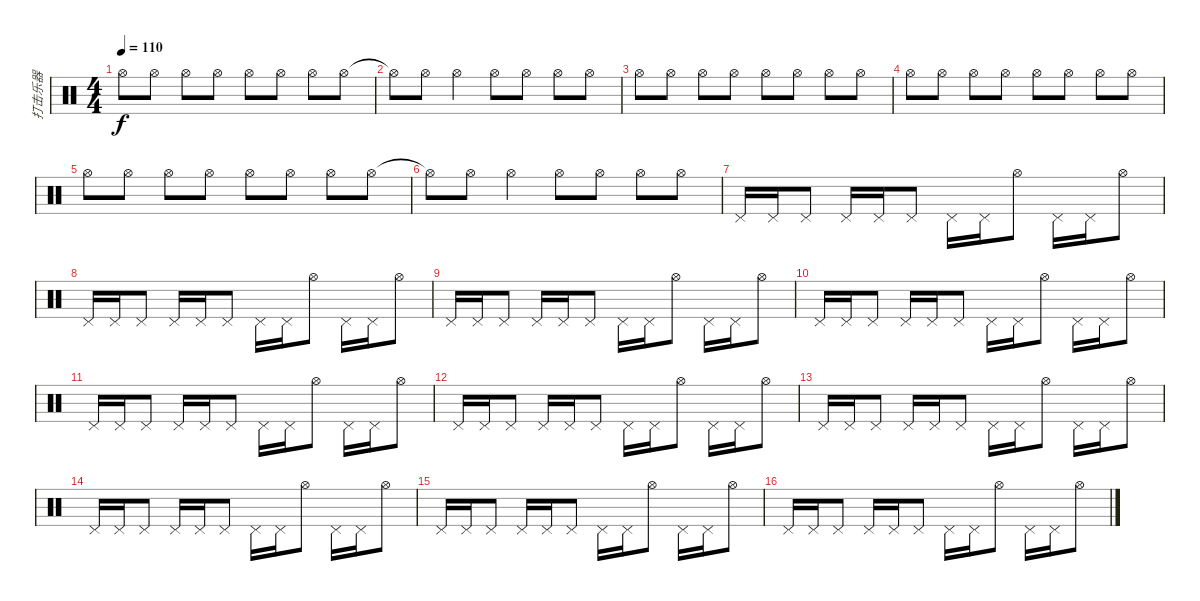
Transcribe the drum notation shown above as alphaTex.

\track ("打击乐器" "打击乐器") {instrument percussion}
\staff {score}
\articulation defaults
\ts (4 4)
\tempo 110
\clef neutral
\ks c "Hi-Hat (open)".8{dy f} "Hi-Hat (open)".8 "Hi-Hat (open)".8 "Hi-Hat (open)".8 "Hi-Hat (open)".8 "Hi-Hat (open)".8 "Hi-Hat (open)".8 "Hi-Hat (open)".8
|
"Hi-Hat (open)"{t}.8 "Hi-Hat (open)".8 "Hi-Hat (open)".4 "Hi-Hat (open)".8 "Hi-Hat (open)".8 "Hi-Hat (open)".8 "Hi-Hat (open)".8 |
"Hi-Hat (open)".8 "Hi-Hat (open)".8 "Hi-Hat (open)".8 "Hi-Hat (open)".8 "Hi-Hat (open)".8 "Hi-Hat (open)".8 "Hi-Hat (open)".8 "Hi-Hat (open)".8 |
"Hi-Hat (open)".8 "Hi-Hat (open)".8 "Hi-Hat (open)".8 "Hi-Hat (open)".8 "Hi-Hat (open)".8 "Hi-Hat (open)".8 "Hi-Hat (open)".8 "Hi-Hat (open)".8 |
"Hi-Hat (open)".8 "Hi-Hat (open)".8 "Hi-Hat (open)".8 "Hi-Hat (open)".8 "Hi-Hat (open)".8 "Hi-Hat (open)".8 "Hi-Hat (open)".8 "Hi-Hat (open)".8 |
"Hi-Hat (open)"{t}.8 "Hi-Hat (open)".8 "Hi-Hat (open)".4 "Hi-Hat (open)".8 "Hi-Hat (open)".8 "Hi-Hat (open)".8 "Hi-Hat (open)".8 |
"Pedal Hi-Hat (hit)".16 "Pedal Hi-Hat (hit)".16 "Pedal Hi-Hat (hit)".8 "Pedal Hi-Hat (hit)".16 "Pedal Hi-Hat (hit)".16 "Pedal Hi-Hat (hit)".8 "Pedal Hi-Hat (hit)".16 "Pedal Hi-Hat (hit)".16 "Hi-Hat (open)".8 "Pedal Hi-Hat (hit)".16 "Pedal Hi-Hat (hit)".16 "Hi-Hat (open)".8 |
"Pedal Hi-Hat (hit)".16 "Pedal Hi-Hat (hit)".16 "Pedal Hi-Hat (hit)".8 "Pedal Hi-Hat (hit)".16 "Pedal Hi-Hat (hit)".16 "Pedal Hi-Hat (hit)".8 "Pedal Hi-Hat (hit)".16 "Pedal Hi-Hat (hit)".16 "Hi-Hat (open)".8 "Pedal Hi-Hat (hit)".16 "Pedal Hi-Hat (hit)".16 "Hi-Hat (open)".8 |
"Pedal Hi-Hat (hit)".16 "Pedal Hi-Hat (hit)".16 "Pedal Hi-Hat (hit)".8 "Pedal Hi-Hat (hit)".16 "Pedal Hi-Hat (hit)".16 "Pedal Hi-Hat (hit)".8 "Pedal Hi-Hat (hit)".16 "Pedal Hi-Hat (hit)".16 "Hi-Hat (open)".8 "Pedal Hi-Hat (hit)".16 "Pedal Hi-Hat (hit)".16 "Hi-Hat (open)".8 |
"Pedal Hi-Hat (hit)".16 "Pedal Hi-Hat (hit)".16 "Pedal Hi-Hat (hit)".8 "Pedal Hi-Hat (hit)".16 "Pedal Hi-Hat (hit)".16 "Pedal Hi-Hat (hit)".8 "Pedal Hi-Hat (hit)".16 "Pedal Hi-Hat (hit)".16 "Hi-Hat (open)".8 "Pedal Hi-Hat (hit)".16 "Pedal Hi-Hat (hit)".16 "Hi-Hat (open)".8 |
"Pedal Hi-Hat (hit)".16 "Pedal Hi-Hat (hit)".16 "Pedal Hi-Hat (hit)".8 "Pedal Hi-Hat (hit)".16 "Pedal Hi-Hat (hit)".16 "Pedal Hi-Hat (hit)".8 "Pedal Hi-Hat (hit)".16 "Pedal Hi-Hat (hit)".16 "Hi-Hat (open)".8 "Pedal Hi-Hat (hit)".16 "Pedal Hi-Hat (hit)".16 "Hi-Hat (open)".8 |
"Pedal Hi-Hat (hit)".16 "Pedal Hi-Hat (hit)".16 "Pedal Hi-Hat (hit)".8 "Pedal Hi-Hat (hit)".16 "Pedal Hi-Hat (hit)".16 "Pedal Hi-Hat (hit)".8 "Pedal Hi-Hat (hit)".16 "Pedal Hi-Hat (hit)".16 "Hi-Hat (open)".8 "Pedal Hi-Hat (hit)".16 "Pedal Hi-Hat (hit)".16 "Hi-Hat (open)".8 |
"Pedal Hi-Hat (hit)".16 "Pedal Hi-Hat (hit)".16 "Pedal Hi-Hat (hit)".8 "Pedal Hi-Hat (hit)".16 "Pedal Hi-Hat (hit)".16 "Pedal Hi-Hat (hit)".8 "Pedal Hi-Hat (hit)".16 "Pedal Hi-Hat (hit)".16 "Hi-Hat (open)".8 "Pedal Hi-Hat (hit)".16 "Pedal Hi-Hat (hit)".16 "Hi-Hat (open)".8 |
"Pedal Hi-Hat (hit)".16 "Pedal Hi-Hat (hit)".16 "Pedal Hi-Hat (hit)".8 "Pedal Hi-Hat (hit)".16 "Pedal Hi-Hat (hit)".16 "Pedal Hi-Hat (hit)".8 "Pedal Hi-Hat (hit)".16 "Pedal Hi-Hat (hit)".16 "Hi-Hat (open)".8 "Pedal Hi-Hat (hit)".16 "Pedal Hi-Hat (hit)".16 "Hi-Hat (open)".8 |
"Pedal Hi-Hat (hit)".16 "Pedal Hi-Hat (hit)".16 "Pedal Hi-Hat (hit)".8 "Pedal Hi-Hat (hit)".16 "Pedal Hi-Hat (hit)".16 "Pedal Hi-Hat (hit)".8 "Pedal Hi-Hat (hit)".16 "Pedal Hi-Hat (hit)".16 "Hi-Hat (open)".8 "Pedal Hi-Hat (hit)".16 "Pedal Hi-Hat (hit)".16 "Hi-Hat (open)".8 |
"Pedal Hi-Hat (hit)".16 "Pedal Hi-Hat (hit)".16 "Pedal Hi-Hat (hit)".8 "Pedal Hi-Hat (hit)".16 "Pedal Hi-Hat (hit)".16 "Pedal Hi-Hat (hit)".8 "Pedal Hi-Hat (hit)".16 "Pedal Hi-Hat (hit)".16 "Hi-Hat (open)".8 "Pedal Hi-Hat (hit)".16 "Pedal Hi-Hat (hit)".16 "Hi-Hat (open)".8
